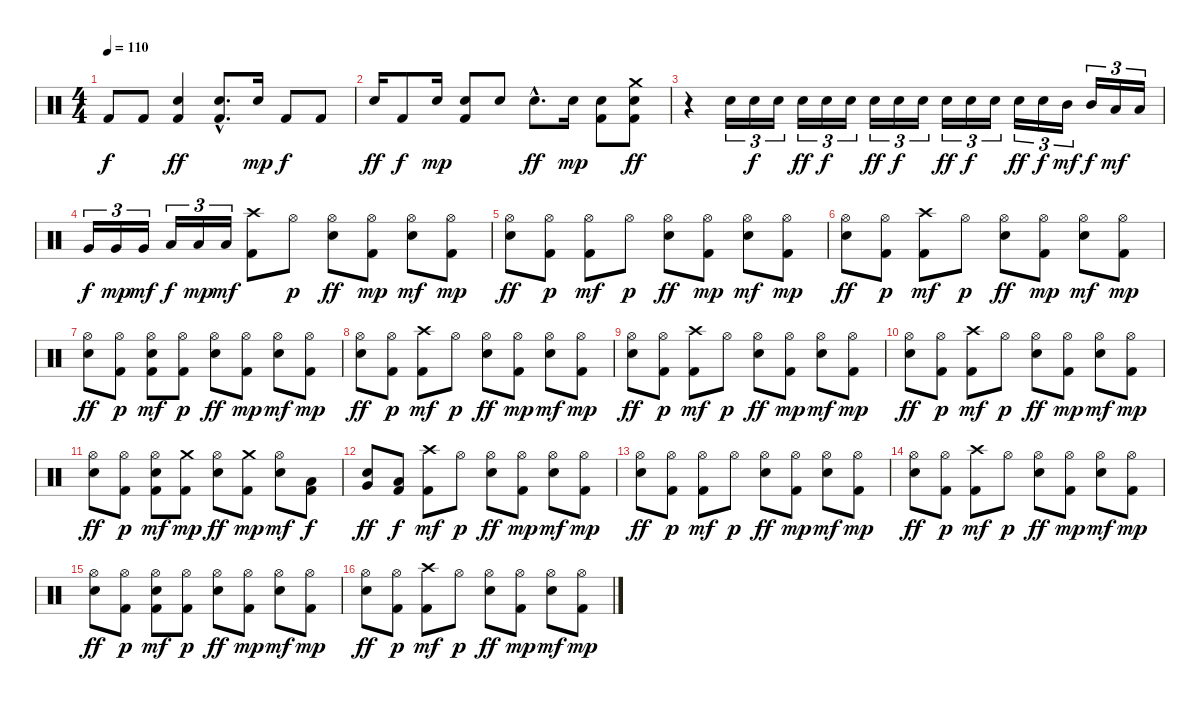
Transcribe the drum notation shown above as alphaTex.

\track "" {instrument percussion}
\staff {score}
\articulation defaults
\ts (4 4)
\tempo 110
\clef neutral
\ks c "Kick (hit) 2".8{dy f} "Kick (hit) 2".8
("Kick (hit) 2" "Electric Snare (hit)").4{dy ff} ("Kick (hit) 2"{hac} "Electric Snare (hit)"{hac}).8{d} "Electric Snare (hit)".16{dy mp} "Kick (hit) 2".8{dy f} "Kick (hit) 2".8 |
"Electric Snare (hit)".16{dy ff} "Kick (hit) 2".8{dy f} "Electric Snare (hit)".16{dy mp} ("Kick (hit) 2" "Electric Snare (hit)").8 "Electric Snare (hit)".8 "Electric Snare (hit)"{hac}.8{d dy ff} "Electric Snare (hit)".16{dy mp} ("Kick (hit) 2" "Electric Snare (hit)").8 ("Electric Snare (hit)" "Kick (hit) 2" "Crash medium (hit)").8{dy ff} |
r.4 "Electric Snare (hit)".16{tu (3 2)} "Electric Snare (hit)".16{tu (3 2) dy f} "Electric Snare (hit)".16{tu (3 2)} "Electric Snare (hit)".16{tu (3 2) dy ff} "Electric Snare (hit)".16{tu (3 2) dy f} "Electric Snare (hit)".16{tu (3 2)} "Electric Snare (hit)".16{tu (3 2) dy ff} "Electric Snare (hit)".16{tu (3 2) dy f} "Electric Snare (hit)".16{tu (3 2)} "Electric Snare (hit)".16{tu (3 2) dy ff} "Electric Snare (hit)".16{tu (3 2) dy f} "Electric Snare (hit)".16{tu (3 2)} "Electric Snare (hit)".16{tu (3 2) dy ff} "Electric Snare (hit)".16{tu (3 2) dy f} "Mid Tom (hit)".16{tu (3 2) dy mf} "Mid Tom (hit)".16{tu (3 2) dy f} "Low Tom (hit)".16{tu (3 2) dy mf} "Low Tom (hit)".16{tu (3 2)} |
"Very Low Tom (hit)".16{tu (3 2) dy f} "Very Low Tom (hit)".16{tu (3 2) dy mp} "Very Low Tom (hit)".16{tu (3 2) dy mf} "Low Floor Tom (hit)".16{tu (3 2) dy f} "Low Floor Tom (hit)".16{tu (3 2) dy mp} "Low Floor Tom (hit)".16{tu (3 2) dy mf} ("Kick (hit) 2" "Crash high (hit)").8 "Hi-Hat (open)".8{dy p} ("Electric Snare (hit)" "Hi-Hat (open)").8{dy ff} ("Kick (hit) 2" "Hi-Hat (open)").8{dy mp} ("Electric Snare (hit)" "Hi-Hat (open)").8{dy mf} ("Kick (hit) 2" "Hi-Hat (open)").8{dy mp} |
("Electric Snare (hit)" "Hi-Hat (open)").8{dy ff} ("Kick (hit) 2" "Hi-Hat (open)").8{dy p} ("Kick (hit) 2" "Hi-Hat (open)").8{dy mf} "Hi-Hat (open)".8{dy p} ("Electric Snare (hit)" "Hi-Hat (open)").8{dy ff} ("Kick (hit) 2" "Hi-Hat (open)").8{dy mp} ("Electric Snare (hit)" "Hi-Hat (open)").8{dy mf} ("Kick (hit) 2" "Hi-Hat (open)").8{dy mp} |
("Electric Snare (hit)" "Hi-Hat (open)").8{dy ff} ("Kick (hit) 2" "Hi-Hat (open)").8{dy p} ("Kick (hit) 2" "Crash high (hit)").8{dy mf} "Hi-Hat (open)".8{dy p} ("Electric Snare (hit)" "Hi-Hat (open)").8{dy ff} ("Kick (hit) 2" "Hi-Hat (open)").8{dy mp} ("Electric Snare (hit)" "Hi-Hat (open)").8{dy mf} ("Kick (hit) 2" "Hi-Hat (open)").8{dy mp} |
("Electric Snare (hit)" "Hi-Hat (open)").8{dy ff} ("Kick (hit) 2" "Hi-Hat (open)").8{dy p} ("Kick (hit) 2" "Electric Snare (hit)" "Hi-Hat (open)").8{dy mf} ("Kick (hit) 2" "Hi-Hat (open)").8{dy p} ("Electric Snare (hit)" "Hi-Hat (open)").8{dy ff} ("Kick (hit) 2" "Hi-Hat (open)").8{dy mp} ("Electric Snare (hit)" "Hi-Hat (open)").8{dy mf} ("Kick (hit) 2" "Hi-Hat (open)").8{dy mp} |
("Electric Snare (hit)" "Hi-Hat (open)").8{dy ff} ("Kick (hit) 2" "Hi-Hat (open)").8{dy p} ("Kick (hit) 2" "Crash high (hit)").8{dy mf} "Hi-Hat (open)".8{dy p} ("Electric Snare (hit)" "Hi-Hat (open)").8{dy ff} ("Kick (hit) 2" "Hi-Hat (open)").8{dy mp} ("Electric Snare (hit)" "Hi-Hat (open)").8{dy mf} ("Kick (hit) 2" "Hi-Hat (open)").8{dy mp} |
("Electric Snare (hit)" "Hi-Hat (open)").8{dy ff} ("Kick (hit) 2" "Hi-Hat (open)").8{dy p} ("Kick (hit) 2" "Crash high (hit)").8{dy mf} "Hi-Hat (open)".8{dy p} ("Electric Snare (hit)" "Hi-Hat (open)").8{dy ff} ("Kick (hit) 2" "Hi-Hat (open)").8{dy mp} ("Electric Snare (hit)" "Hi-Hat (open)").8{dy mf} ("Kick (hit) 2" "Hi-Hat (open)").8{dy mp} |
("Electric Snare (hit)" "Hi-Hat (open)").8{dy ff} ("Kick (hit) 2" "Hi-Hat (open)").8{dy p} ("Kick (hit) 2" "Crash high (hit)").8{dy mf} "Hi-Hat (open)".8{dy p} ("Electric Snare (hit)" "Hi-Hat (open)").8{dy ff} ("Kick (hit) 2" "Hi-Hat (open)").8{dy mp} ("Electric Snare (hit)" "Hi-Hat (open)").8{dy mf} ("Kick (hit) 2" "Hi-Hat (open)").8{dy mp} |
("Electric Snare (hit)" "Hi-Hat (open)").8{dy ff} ("Kick (hit) 2" "Hi-Hat (open)").8{dy p} ("Kick (hit) 2" "Electric Snare (hit)" "Hi-Hat (open)").8{dy mf} ("Kick (hit) 2" "Crash medium (hit)").8{dy mp} ("Electric Snare (hit)" "Hi-Hat (open)").8{dy ff} ("Kick (hit) 2" "Crash medium (hit)").8{dy mp} ("Electric Snare (hit)" "Hi-Hat (open)").8{dy mf} ("Kick (hit) 2" "Low Tom (hit)").8{dy f} |
("Electric Snare (hit)" "Very Low Tom (hit)").8{dy ff} ("Kick (hit) 2" "Low Floor Tom (hit)").8{dy f} ("Kick (hit) 2" "Crash high (hit)").8{dy mf} "Hi-Hat (open)".8{dy p} ("Electric Snare (hit)" "Hi-Hat (open)").8{dy ff} ("Kick (hit) 2" "Hi-Hat (open)").8{dy mp} ("Electric Snare (hit)" "Hi-Hat (open)").8{dy mf} ("Kick (hit) 2" "Hi-Hat (open)").8{dy mp} |
("Electric Snare (hit)" "Hi-Hat (open)").8{dy ff} ("Kick (hit) 2" "Hi-Hat (open)").8{dy p} ("Kick (hit) 2" "Hi-Hat (open)").8{dy mf} "Hi-Hat (open)".8{dy p} ("Electric Snare (hit)" "Hi-Hat (open)").8{dy ff} ("Kick (hit) 2" "Hi-Hat (open)").8{dy mp} ("Electric Snare (hit)" "Hi-Hat (open)").8{dy mf} ("Kick (hit) 2" "Hi-Hat (open)").8{dy mp} |
("Electric Snare (hit)" "Hi-Hat (open)").8{dy ff} ("Kick (hit) 2" "Hi-Hat (open)").8{dy p} ("Kick (hit) 2" "Crash high (hit)").8{dy mf} "Hi-Hat (open)".8{dy p} ("Electric Snare (hit)" "Hi-Hat (open)").8{dy ff} ("Kick (hit) 2" "Hi-Hat (open)").8{dy mp} ("Electric Snare (hit)" "Hi-Hat (open)").8{dy mf} ("Kick (hit) 2" "Hi-Hat (open)").8{dy mp} |
("Electric Snare (hit)" "Hi-Hat (open)").8{dy ff} ("Kick (hit) 2" "Hi-Hat (open)").8{dy p} ("Kick (hit) 2" "Electric Snare (hit)" "Hi-Hat (open)").8{dy mf} ("Kick (hit) 2" "Hi-Hat (open)").8{dy p} ("Electric Snare (hit)" "Hi-Hat (open)").8{dy ff} ("Kick (hit) 2" "Hi-Hat (open)").8{dy mp} ("Electric Snare (hit)" "Hi-Hat (open)").8{dy mf} ("Kick (hit) 2" "Hi-Hat (open)").8{dy mp} |
("Electric Snare (hit)" "Hi-Hat (open)").8{dy ff} ("Kick (hit) 2" "Hi-Hat (open)").8{dy p} ("Kick (hit) 2" "Crash high (hit)").8{dy mf} "Hi-Hat (open)".8{dy p} ("Electric Snare (hit)" "Hi-Hat (open)").8{dy ff} ("Kick (hit) 2" "Hi-Hat (open)").8{dy mp} ("Electric Snare (hit)" "Hi-Hat (open)").8{dy mf} ("Kick (hit) 2" "Hi-Hat (open)").8{dy mp}
